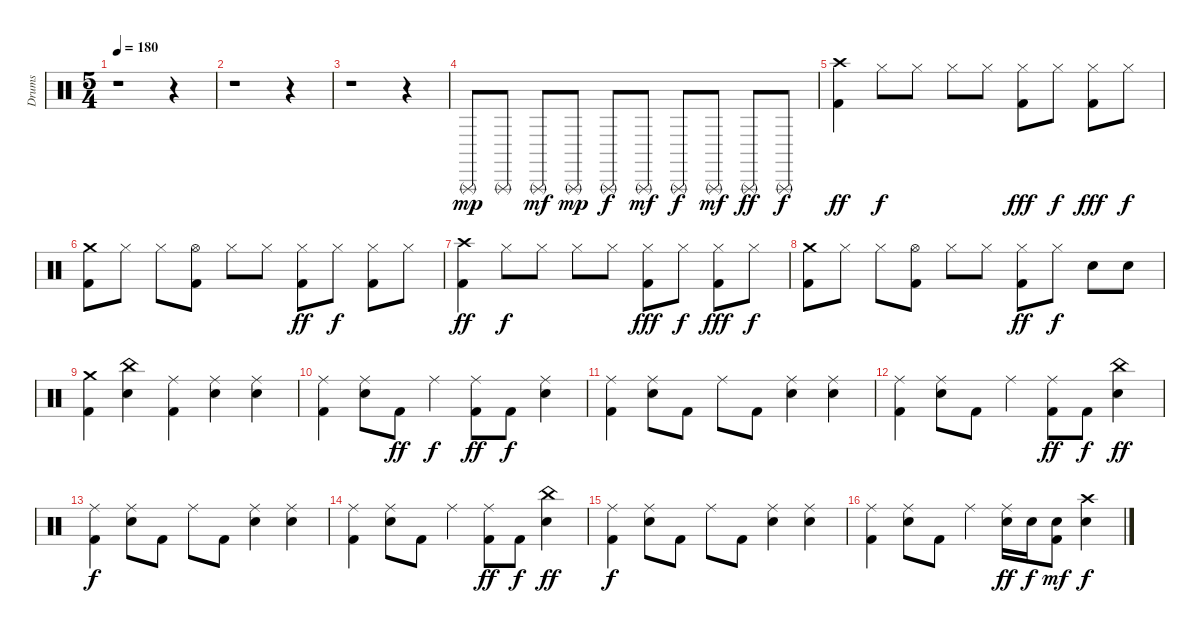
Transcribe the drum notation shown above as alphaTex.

\track ("Drums" "Drums") {instrument percussion}
\staff {score}
\articulation defaults
\ts (5 4)
\tempo 180
\clef neutral
\ks c
r.1{dy mp} r.4 |
r.1 r.4 |
r.1 r.4 |
"Triangle (rnute)".8 "Triangle (rnute)".8 "Triangle (rnute)".8{dy mf} "Triangle (rnute)".8{dy mp} "Triangle (rnute)".8{dy f} "Triangle (rnute)".8{dy mf} "Triangle (rnute)".8{dy f} "Triangle (rnute)".8{dy mf} "Triangle (rnute)".8{dy ff} "Triangle (rnute)".8{dy f} |
("Crash high (hit)" "Kick (hit) 2").4{dy ff} "Hi-Hat (closed)".8{dy f} "Hi-Hat (closed)".8 "Hi-Hat (closed)".8 "Hi-Hat (closed)".8 ("Hi-Hat (closed)" "Kick (hit) 2").8{dy fff} "Hi-Hat (closed)".8{dy f} ("Hi-Hat (closed)" "Kick (hit) 2").8{dy fff} "Hi-Hat (closed)".8{dy f} |
("Crash medium (hit)" "Kick (hit) 2").8 "Hi-Hat (closed)".8 "Hi-Hat (closed)".8 ("Hi-Hat (open)" "Kick (hit) 2").8 "Hi-Hat (closed)".8 "Hi-Hat (closed)".8 ("Hi-Hat (closed)" "Kick (hit) 2").8{dy ff} "Hi-Hat (closed)".8{dy f} ("Hi-Hat (closed)" "Kick (hit) 2").8 "Hi-Hat (closed)".8 |
("Crash high (hit)" "Kick (hit) 2").4{dy ff} "Hi-Hat (closed)".8{dy f} "Hi-Hat (closed)".8 "Hi-Hat (closed)".8 "Hi-Hat (closed)".8 ("Hi-Hat (closed)" "Kick (hit) 2").8{dy fff} "Hi-Hat (closed)".8{dy f} ("Hi-Hat (closed)" "Kick (hit) 2").8{dy fff} "Hi-Hat (closed)".8{dy f} |
("Crash medium (hit)" "Kick (hit) 2").8 "Hi-Hat (closed)".8 "Hi-Hat (closed)".8 ("Hi-Hat (open)" "Kick (hit) 2").8 "Hi-Hat (closed)".8 "Hi-Hat (closed)".8 ("Hi-Hat (closed)" "Kick (hit) 2").8{dy ff} "Hi-Hat (closed)".8{dy f} "Snare (hit) 2".8 "Snare (hit) 2".8 |
("Crash medium (hit)" "Kick (hit) 2").4 ("China (hit)" "Snare (hit) 2").4 ("Ride (middle)" "Kick (hit) 2").4 ("Ride (middle)" "Snare (hit) 2").4 ("Ride (middle)" "Snare (hit) 2").4 |
("Ride (middle)" "Kick (hit) 2").4 ("Ride (middle)" "Snare (hit) 2").8 "Kick (hit) 2".8{dy ff} "Ride (middle)".4{dy f} ("Ride (middle)" "Kick (hit) 2").8{dy ff} "Kick (hit) 2".8{dy f} ("Ride (middle)" "Snare (hit) 2").4 |
("Ride (middle)" "Kick (hit) 2").4 ("Ride (middle)" "Snare (hit) 2").8 "Kick (hit) 2".8 "Ride (middle)".8 "Kick (hit) 2".8 ("Ride (middle)" "Snare (hit) 2").4 ("Ride (middle)" "Snare (hit) 2").4 |
("Ride (middle)" "Kick (hit) 2").4 ("Ride (middle)" "Snare (hit) 2").8 "Kick (hit) 2".8 "Ride (middle)".4 ("Ride (middle)" "Kick (hit) 2").8{dy ff} "Kick (hit) 2".8{dy f} ("China (hit)" "Snare (hit) 2").4{dy ff} |
("Ride (middle)" "Kick (hit) 2").4{dy f} ("Ride (middle)" "Snare (hit) 2").8 "Kick (hit) 2".8 "Ride (middle)".8 "Kick (hit) 2".8 ("Ride (middle)" "Snare (hit) 2").4 ("Ride (middle)" "Snare (hit) 2").4 |
("Ride (middle)" "Kick (hit) 2").4 ("Ride (middle)" "Snare (hit) 2").8 "Kick (hit) 2".8 "Ride (middle)".4 ("Ride (middle)" "Kick (hit) 2").8{dy ff} "Kick (hit) 2".8{dy f} ("China (hit)" "Snare (hit) 2").4{dy ff} |
("Ride (middle)" "Kick (hit) 2").4{dy f} ("Ride (middle)" "Snare (hit) 2").8 "Kick (hit) 2".8 "Ride (middle)".8 "Kick (hit) 2".8 ("Ride (middle)" "Snare (hit) 2").4 ("Ride (middle)" "Snare (hit) 2").4 |
("Ride (middle)" "Kick (hit) 2").4 ("Ride (middle)" "Snare (hit) 2").8 "Kick (hit) 2".8 "Ride (middle)".4 ("Ride (middle)" "Snare (hit) 2").16{dy ff} "Snare (hit) 2".16{dy f} ("Snare (hit) 2" "Kick (hit) 2").8{dy mf} ("Crash high (hit)" "Snare (hit) 2").4{dy f}
